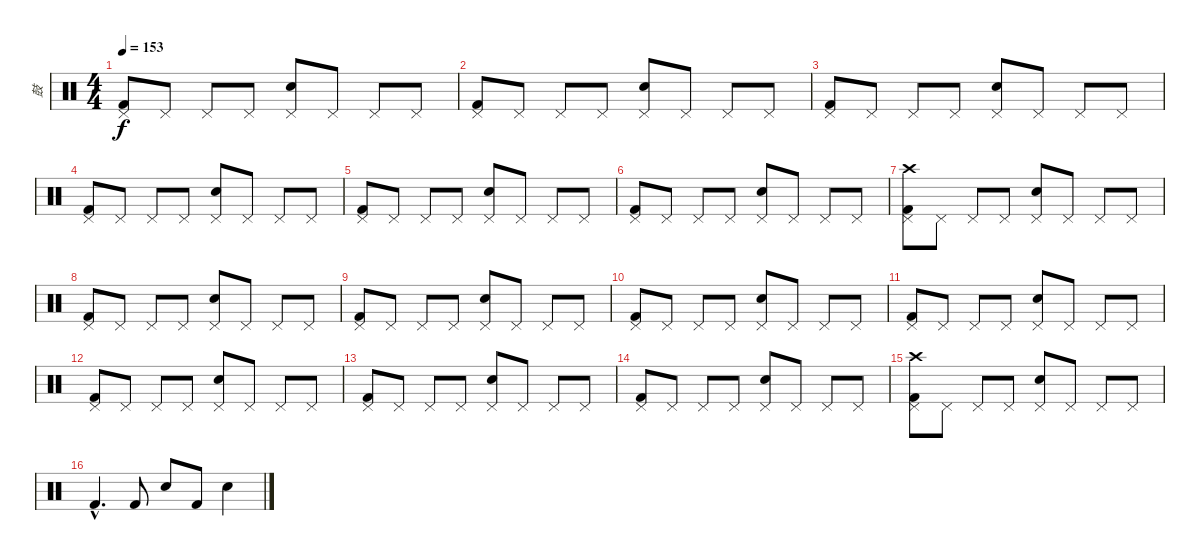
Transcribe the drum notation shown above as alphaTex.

\track ("鼓" "鼓") {instrument percussion}
\staff {score}
\articulation defaults
\ts (4 4)
\tempo 153
\clef neutral
\ks c
("Pedal Hi-Hat (hit)" "Kick (hit) 2").8{dy f} "Pedal Hi-Hat (hit)".8 "Pedal Hi-Hat (hit)".8 "Pedal Hi-Hat (hit)".8 ("Pedal Hi-Hat (hit)" "Electric Snare (hit)").8 "Pedal Hi-Hat (hit)".8 "Pedal Hi-Hat (hit)".8 "Pedal Hi-Hat (hit)".8 |
("Pedal Hi-Hat (hit)" "Kick (hit) 2").8 "Pedal Hi-Hat (hit)".8 "Pedal Hi-Hat (hit)".8 "Pedal Hi-Hat (hit)".8 ("Pedal Hi-Hat (hit)" "Electric Snare (hit)").8 "Pedal Hi-Hat (hit)".8 "Pedal Hi-Hat (hit)".8 "Pedal Hi-Hat (hit)".8 |
("Pedal Hi-Hat (hit)" "Kick (hit) 2").8 "Pedal Hi-Hat (hit)".8 "Pedal Hi-Hat (hit)".8 "Pedal Hi-Hat (hit)".8 ("Pedal Hi-Hat (hit)" "Electric Snare (hit)").8 "Pedal Hi-Hat (hit)".8 "Pedal Hi-Hat (hit)".8 "Pedal Hi-Hat (hit)".8 |
("Pedal Hi-Hat (hit)" "Kick (hit) 2").8 "Pedal Hi-Hat (hit)".8 "Pedal Hi-Hat (hit)".8 "Pedal Hi-Hat (hit)".8 ("Pedal Hi-Hat (hit)" "Electric Snare (hit)").8 "Pedal Hi-Hat (hit)".8 "Pedal Hi-Hat (hit)".8 "Pedal Hi-Hat (hit)".8 |
("Pedal Hi-Hat (hit)" "Kick (hit) 2").8 "Pedal Hi-Hat (hit)".8 "Pedal Hi-Hat (hit)".8 "Pedal Hi-Hat (hit)".8 ("Pedal Hi-Hat (hit)" "Electric Snare (hit)").8 "Pedal Hi-Hat (hit)".8 "Pedal Hi-Hat (hit)".8 "Pedal Hi-Hat (hit)".8 |
("Pedal Hi-Hat (hit)" "Kick (hit) 2").8 "Pedal Hi-Hat (hit)".8 "Pedal Hi-Hat (hit)".8 "Pedal Hi-Hat (hit)".8 ("Pedal Hi-Hat (hit)" "Electric Snare (hit)").8 "Pedal Hi-Hat (hit)".8 "Pedal Hi-Hat (hit)".8 "Pedal Hi-Hat (hit)".8 |
("Pedal Hi-Hat (hit)" "Crash high (hit)" "Kick (hit) 2").8 "Pedal Hi-Hat (hit)".8 "Pedal Hi-Hat (hit)".8 "Pedal Hi-Hat (hit)".8 ("Pedal Hi-Hat (hit)" "Electric Snare (hit)").8 "Pedal Hi-Hat (hit)".8 "Pedal Hi-Hat (hit)".8 "Pedal Hi-Hat (hit)".8 |
("Pedal Hi-Hat (hit)" "Kick (hit) 2").8 "Pedal Hi-Hat (hit)".8 "Pedal Hi-Hat (hit)".8 "Pedal Hi-Hat (hit)".8 ("Pedal Hi-Hat (hit)" "Electric Snare (hit)").8 "Pedal Hi-Hat (hit)".8 "Pedal Hi-Hat (hit)".8 "Pedal Hi-Hat (hit)".8 |
("Pedal Hi-Hat (hit)" "Kick (hit) 2").8 "Pedal Hi-Hat (hit)".8 "Pedal Hi-Hat (hit)".8 "Pedal Hi-Hat (hit)".8 ("Pedal Hi-Hat (hit)" "Electric Snare (hit)").8 "Pedal Hi-Hat (hit)".8 "Pedal Hi-Hat (hit)".8 "Pedal Hi-Hat (hit)".8 |
("Pedal Hi-Hat (hit)" "Kick (hit) 2").8 "Pedal Hi-Hat (hit)".8 "Pedal Hi-Hat (hit)".8 "Pedal Hi-Hat (hit)".8 ("Pedal Hi-Hat (hit)" "Electric Snare (hit)").8 "Pedal Hi-Hat (hit)".8 "Pedal Hi-Hat (hit)".8 "Pedal Hi-Hat (hit)".8 |
("Pedal Hi-Hat (hit)" "Kick (hit) 2").8 "Pedal Hi-Hat (hit)".8 "Pedal Hi-Hat (hit)".8 "Pedal Hi-Hat (hit)".8 ("Pedal Hi-Hat (hit)" "Electric Snare (hit)").8 "Pedal Hi-Hat (hit)".8 "Pedal Hi-Hat (hit)".8 "Pedal Hi-Hat (hit)".8 |
("Pedal Hi-Hat (hit)" "Kick (hit) 2").8 "Pedal Hi-Hat (hit)".8 "Pedal Hi-Hat (hit)".8 "Pedal Hi-Hat (hit)".8 ("Pedal Hi-Hat (hit)" "Electric Snare (hit)").8 "Pedal Hi-Hat (hit)".8 "Pedal Hi-Hat (hit)".8 "Pedal Hi-Hat (hit)".8 |
("Pedal Hi-Hat (hit)" "Kick (hit) 2").8 "Pedal Hi-Hat (hit)".8 "Pedal Hi-Hat (hit)".8 "Pedal Hi-Hat (hit)".8 ("Pedal Hi-Hat (hit)" "Electric Snare (hit)").8 "Pedal Hi-Hat (hit)".8 "Pedal Hi-Hat (hit)".8 "Pedal Hi-Hat (hit)".8 |
("Pedal Hi-Hat (hit)" "Kick (hit) 2").8 "Pedal Hi-Hat (hit)".8 "Pedal Hi-Hat (hit)".8 "Pedal Hi-Hat (hit)".8 ("Pedal Hi-Hat (hit)" "Electric Snare (hit)").8 "Pedal Hi-Hat (hit)".8 "Pedal Hi-Hat (hit)".8 "Pedal Hi-Hat (hit)".8 |
("Pedal Hi-Hat (hit)" "Crash high (hit)" "Kick (hit) 2").8 "Pedal Hi-Hat (hit)".8 "Pedal Hi-Hat (hit)".8 "Pedal Hi-Hat (hit)".8 ("Pedal Hi-Hat (hit)" "Electric Snare (hit)").8 "Pedal Hi-Hat (hit)".8 "Pedal Hi-Hat (hit)".8 "Pedal Hi-Hat (hit)".8 |
"Kick (hit) 2"{hac}.4{d} "Kick (hit) 2".8 "Electric Snare (hit)".8 "Kick (hit) 2".8 "Electric Snare (hit)".4
